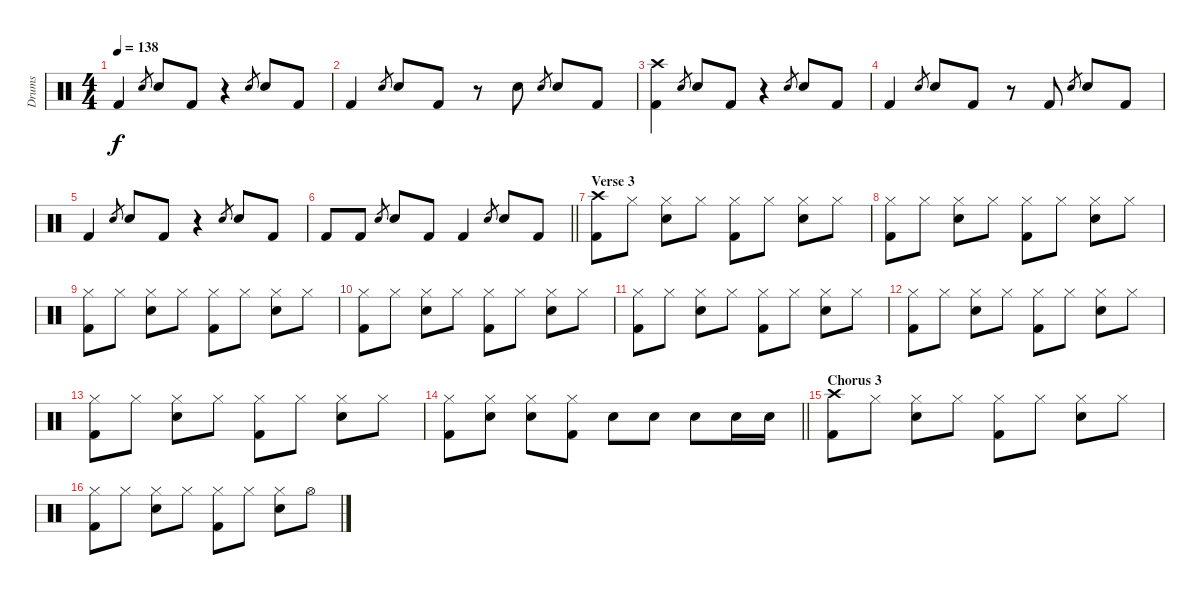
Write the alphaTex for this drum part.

\track ("Drums" "Drums") {instrument percussion}
\staff {score}
\articulation defaults
\ts (4 4)
\tempo 138
\clef neutral
\ks c "Kick (hit) 2".4{dy f} "Snare (hit) 2".8{gr} "Snare (hit) 2".8 "Kick (hit) 2".8
r.4 "Snare (hit) 2".8{gr} "Snare (hit) 2".8 "Kick (hit) 2".8 |
"Kick (hit) 2".4 "Snare (hit) 2".8{gr} "Snare (hit) 2".8 "Kick (hit) 2".8 r.8 "Snare (hit) 2".8 "Snare (hit) 2".8{gr} "Snare (hit) 2".8 "Kick (hit) 2".8 |
("Crash high (hit)" "Kick (hit) 2").4 "Snare (hit) 2".8{gr} "Snare (hit) 2".8 "Kick (hit) 2".8 r.4 "Snare (hit) 2".8{gr} "Snare (hit) 2".8 "Kick (hit) 2".8 |
"Kick (hit) 2".4 "Snare (hit) 2".8{gr} "Snare (hit) 2".8 "Kick (hit) 2".8 r.8 "Kick (hit) 2".8 "Snare (hit) 2".8{gr} "Snare (hit) 2".8 "Kick (hit) 2".8 |
"Kick (hit) 2".4 "Snare (hit) 2".8{gr} "Snare (hit) 2".8 "Kick (hit) 2".8 r.4 "Snare (hit) 2".8{gr} "Snare (hit) 2".8 "Kick (hit) 2".8 |
\barLineRight lightlight "Kick (hit) 2".8 "Kick (hit) 2".8 "Snare (hit) 2".8{gr} "Snare (hit) 2".8 "Kick (hit) 2".8 "Kick (hit) 2".4 "Snare (hit) 2".8{gr} "Snare (hit) 2".8 "Kick (hit) 2".8
|
\section ("" "Verse 3")
("Crash high (hit)" "Kick (hit) 2").8 "Hi-Hat (closed)".8 ("Hi-Hat (closed)" "Snare (hit) 2").8 "Hi-Hat (closed)".8 ("Hi-Hat (closed)" "Kick (hit) 2").8 "Hi-Hat (closed)".8 ("Hi-Hat (closed)" "Snare (hit) 2").8 "Hi-Hat (closed)".8 |
("Hi-Hat (closed)" "Kick (hit) 2").8 "Hi-Hat (closed)".8 ("Hi-Hat (closed)" "Snare (hit) 2").8 "Hi-Hat (closed)".8 ("Hi-Hat (closed)" "Kick (hit) 2").8 "Hi-Hat (closed)".8 ("Hi-Hat (closed)" "Snare (hit) 2").8 "Hi-Hat (closed)".8 |
("Hi-Hat (closed)" "Kick (hit) 2").8 "Hi-Hat (closed)".8 ("Hi-Hat (closed)" "Snare (hit) 2").8 "Hi-Hat (closed)".8 ("Hi-Hat (closed)" "Kick (hit) 2").8 "Hi-Hat (closed)".8 ("Hi-Hat (closed)" "Snare (hit) 2").8 "Hi-Hat (closed)".8 |
("Hi-Hat (closed)" "Kick (hit) 2").8 "Hi-Hat (closed)".8 ("Hi-Hat (closed)" "Snare (hit) 2").8 "Hi-Hat (closed)".8 ("Hi-Hat (closed)" "Kick (hit) 2").8 "Hi-Hat (closed)".8 ("Hi-Hat (closed)" "Snare (hit) 2").8 "Hi-Hat (closed)".8 |
("Hi-Hat (closed)" "Kick (hit) 2").8 "Hi-Hat (closed)".8 ("Hi-Hat (closed)" "Snare (hit) 2").8 "Hi-Hat (closed)".8 ("Hi-Hat (closed)" "Kick (hit) 2").8 "Hi-Hat (closed)".8 ("Hi-Hat (closed)" "Snare (hit) 2").8 "Hi-Hat (closed)".8 |
("Hi-Hat (closed)" "Kick (hit) 2").8 "Hi-Hat (closed)".8 ("Hi-Hat (closed)" "Snare (hit) 2").8 "Hi-Hat (closed)".8 ("Hi-Hat (closed)" "Kick (hit) 2").8 "Hi-Hat (closed)".8 ("Hi-Hat (closed)" "Snare (hit) 2").8 "Hi-Hat (closed)".8 |
("Hi-Hat (closed)" "Kick (hit) 2").8 "Hi-Hat (closed)".8 ("Hi-Hat (closed)" "Snare (hit) 2").8 "Hi-Hat (closed)".8 ("Hi-Hat (closed)" "Kick (hit) 2").8 "Hi-Hat (closed)".8 ("Hi-Hat (closed)" "Snare (hit) 2").8 "Hi-Hat (closed)".8 |
\barLineRight lightlight
("Hi-Hat (closed)" "Kick (hit) 2").8 ("Hi-Hat (closed)" "Snare (hit) 2").8 ("Hi-Hat (closed)" "Snare (hit) 2").8 ("Hi-Hat (closed)" "Kick (hit) 2").8 "Snare (hit) 2".8 "Snare (hit) 2".8 "Snare (hit) 2".8 "Snare (hit) 2".16 "Snare (hit) 2".16 |
\section ("" "Chorus 3")
("Crash high (hit)" "Kick (hit) 2").8 "Hi-Hat (closed)".8 ("Hi-Hat (closed)" "Snare (hit) 2").8 "Hi-Hat (closed)".8 ("Hi-Hat (closed)" "Kick (hit) 2").8 "Hi-Hat (closed)".8 ("Hi-Hat (closed)" "Snare (hit) 2").8 "Hi-Hat (closed)".8 |
("Hi-Hat (closed)" "Kick (hit) 2").8 "Hi-Hat (closed)".8 ("Hi-Hat (closed)" "Snare (hit) 2").8 "Hi-Hat (closed)".8 ("Hi-Hat (closed)" "Kick (hit) 2").8 "Hi-Hat (closed)".8 ("Hi-Hat (closed)" "Snare (hit) 2").8 "Hi-Hat (open)".8
